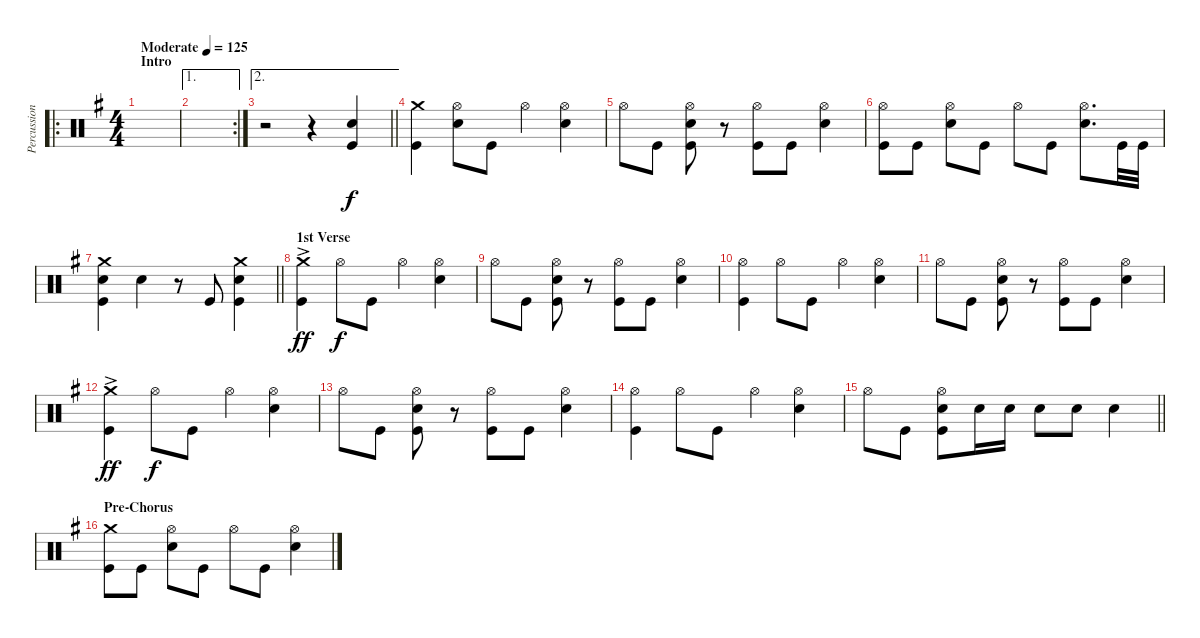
\track ("Percussion" "Percussion") {instrument percussion}
\staff {score}
\articulation defaults
\ro
\ts (4 4)
\section ("" "Intro")
\tempo (125 "Moderate")
\clef neutral
\ks g
|
\ae 1
\rc 2
|
\ae 2
\barLineRight lightlight
r.2 r.4 ("Snare (hit) 2" "Kick (hit)").4 |
("Crash medium (hit)" "Kick (hit)").4 ("Hi-Hat (open)" "Snare (hit) 2").8 "Kick (hit)".8 "Hi-Hat (open)".4 ("Hi-Hat (open)" "Snare (hit) 2").4 |
"Hi-Hat (open)".8 "Kick (hit)".8 ("Hi-Hat (open)" "Snare (hit) 2" "Kick (hit)").8 r.8 ("Hi-Hat (open)" "Kick (hit)").8 "Kick (hit)".8 ("Hi-Hat (open)" "Snare (hit) 2").4 |
("Hi-Hat (open)" "Kick (hit)").8 "Kick (hit)".8 ("Hi-Hat (open)" "Snare (hit) 2").8 "Kick (hit)".8 "Hi-Hat (open)".8 "Kick (hit)".8 ("Hi-Hat (open)" "Snare (hit) 2").8{d} "Kick (hit)".32 "Kick (hit)".32 |
\barLineRight lightlight
("Crash medium (hit)" "Snare (hit) 2" "Kick (hit)").4 "Electric Snare (hit)".4 r.8 "Kick (hit)".8 ("Crash medium (hit)" "Snare (hit) 2" "Kick (hit)").4 |
\section ("" "1st Verse")
("Crash medium (hit)"{ac} "Kick (hit)").4{dy ff} "Hi-Hat (open)".8{dy f} "Kick (hit)".8 "Hi-Hat (open)".4 ("Hi-Hat (open)" "Snare (hit) 2").4 |
"Hi-Hat (open)".8 "Kick (hit)".8 ("Hi-Hat (open)" "Snare (hit) 2" "Kick (hit)").8 r.8 ("Hi-Hat (open)" "Kick (hit)").8 "Kick (hit)".8 ("Hi-Hat (open)" "Snare (hit) 2").4 |
("Hi-Hat (open)" "Kick (hit)").4 "Hi-Hat (open)".8 "Kick (hit)".8 "Hi-Hat (open)".4 ("Hi-Hat (open)" "Snare (hit) 2").4 |
"Hi-Hat (open)".8 "Kick (hit)".8 ("Hi-Hat (open)" "Snare (hit) 2" "Kick (hit)").8 r.8 ("Hi-Hat (open)" "Kick (hit)").8 "Kick (hit)".8 ("Hi-Hat (open)" "Snare (hit) 2").4 |
("Crash medium (hit)"{ac} "Kick (hit)").4{dy ff} "Hi-Hat (open)".8{dy f} "Kick (hit)".8 "Hi-Hat (open)".4 ("Hi-Hat (open)" "Snare (hit) 2").4 |
"Hi-Hat (open)".8 "Kick (hit)".8 ("Hi-Hat (open)" "Snare (hit) 2" "Kick (hit)").8 r.8 ("Hi-Hat (open)" "Kick (hit)").8 "Kick (hit)".8 ("Hi-Hat (open)" "Snare (hit) 2").4 |
("Hi-Hat (open)" "Kick (hit)").4 "Hi-Hat (open)".8 "Kick (hit)".8 "Hi-Hat (open)".4 ("Hi-Hat (open)" "Snare (hit) 2").4 |
\barLineRight lightlight "Hi-Hat (open)".8 "Kick (hit)".8
("Hi-Hat (open)" "Snare (hit) 2" "Kick (hit)").8 "Snare (hit) 2".16 "Snare (hit) 2".16 "Snare (hit) 2".8 "Snare (hit) 2".8 "Snare (hit) 2".4 |
\section ("" "Pre-Chorus")
("Crash medium (hit)" "Kick (hit)").8 "Kick (hit)".8 ("Hi-Hat (open)" "Snare (hit) 2").8 "Kick (hit)".8 "Hi-Hat (open)".8 "Kick (hit)".8 ("Hi-Hat (open)" "Snare (hit) 2").4
